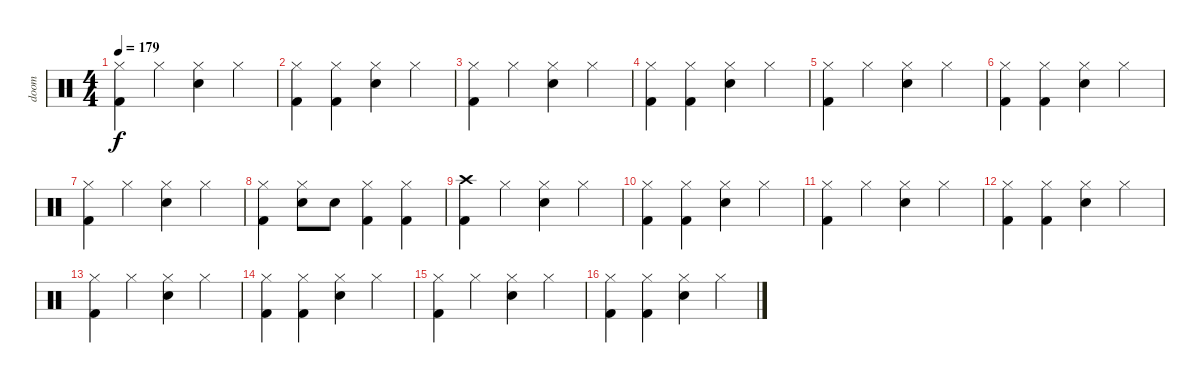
\track ("doom" "doom") {instrument percussion}
\staff {score}
\articulation defaults
\ts (4 4)
\tempo 179
\clef neutral
\ks c
("Hi-Hat (closed)" "Kick (hit) 2").4{dy f} "Hi-Hat (closed)".4 ("Hi-Hat (closed)" "Snare (hit) 2").4 "Hi-Hat (closed)".4 |
("Hi-Hat (closed)" "Kick (hit) 2").4 ("Hi-Hat (closed)" "Kick (hit) 2").4 ("Hi-Hat (closed)" "Snare (hit) 2").4 "Hi-Hat (closed)".4 |
("Hi-Hat (closed)" "Kick (hit) 2").4 "Hi-Hat (closed)".4 ("Hi-Hat (closed)" "Snare (hit) 2").4 "Hi-Hat (closed)".4 |
("Hi-Hat (closed)" "Kick (hit) 2").4 ("Hi-Hat (closed)" "Kick (hit) 2").4 ("Hi-Hat (closed)" "Snare (hit) 2").4 "Hi-Hat (closed)".4 |
("Hi-Hat (closed)" "Kick (hit) 2").4 "Hi-Hat (closed)".4 ("Hi-Hat (closed)" "Snare (hit) 2").4 "Hi-Hat (closed)".4 |
("Hi-Hat (closed)" "Kick (hit) 2").4 ("Hi-Hat (closed)" "Kick (hit) 2").4 ("Hi-Hat (closed)" "Snare (hit) 2").4 "Hi-Hat (closed)".4 |
("Hi-Hat (closed)" "Kick (hit) 2").4 "Hi-Hat (closed)".4 ("Hi-Hat (closed)" "Snare (hit) 2").4 "Hi-Hat (closed)".4 |
("Hi-Hat (closed)" "Kick (hit) 2").4 ("Hi-Hat (closed)" "Snare (hit) 2").8 "Snare (hit) 2".8 ("Hi-Hat (closed)" "Kick (hit) 2").4 ("Hi-Hat (closed)" "Kick (hit) 2").4 |
("Crash high (hit)" "Kick (hit) 2").4 "Hi-Hat (closed)".4 ("Hi-Hat (closed)" "Snare (hit) 2").4 "Hi-Hat (closed)".4 |
("Hi-Hat (closed)" "Kick (hit) 2").4 ("Hi-Hat (closed)" "Kick (hit) 2").4 ("Hi-Hat (closed)" "Snare (hit) 2").4 "Hi-Hat (closed)".4 |
("Hi-Hat (closed)" "Kick (hit) 2").4 "Hi-Hat (closed)".4 ("Hi-Hat (closed)" "Snare (hit) 2").4 "Hi-Hat (closed)".4 |
("Hi-Hat (closed)" "Kick (hit) 2").4 ("Hi-Hat (closed)" "Kick (hit) 2").4 ("Hi-Hat (closed)" "Snare (hit) 2").4 "Hi-Hat (closed)".4 |
("Hi-Hat (closed)" "Kick (hit) 2").4 "Hi-Hat (closed)".4 ("Hi-Hat (closed)" "Snare (hit) 2").4 "Hi-Hat (closed)".4 |
("Hi-Hat (closed)" "Kick (hit) 2").4 ("Hi-Hat (closed)" "Kick (hit) 2").4 ("Hi-Hat (closed)" "Snare (hit) 2").4 "Hi-Hat (closed)".4 |
("Hi-Hat (closed)" "Kick (hit) 2").4 "Hi-Hat (closed)".4 ("Hi-Hat (closed)" "Snare (hit) 2").4 "Hi-Hat (closed)".4 |
("Hi-Hat (closed)" "Kick (hit) 2").4 ("Hi-Hat (closed)" "Kick (hit) 2").4 ("Hi-Hat (closed)" "Snare (hit) 2").4 "Hi-Hat (closed)".4
